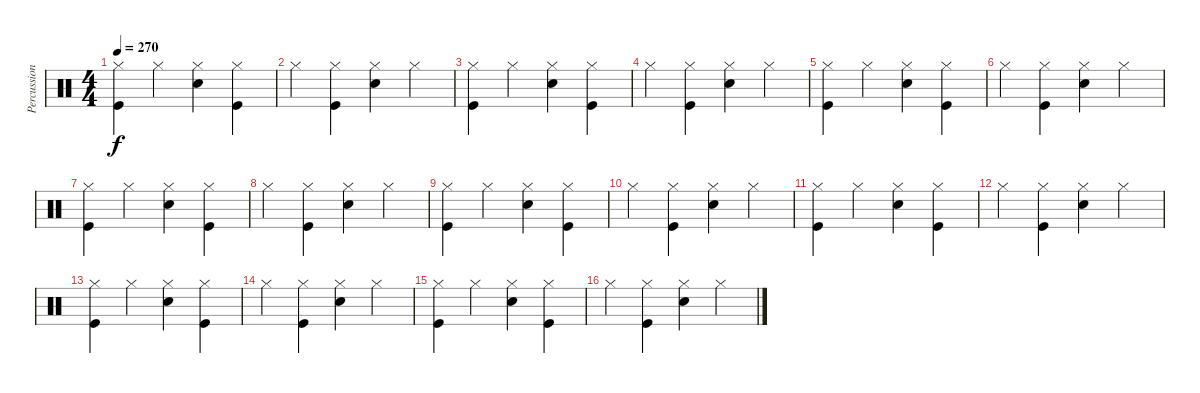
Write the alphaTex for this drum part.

\track ("Percussions" "Percussion") {instrument percussion}
\staff {score}
\articulation defaults
\ts (4 4)
\tempo 270
\clef neutral
\ks c
("Hi-Hat (closed)" "Kick (hit)").4{dy f} "Hi-Hat (closed)".4 ("Hi-Hat (closed)" "Snare (hit) 2").4 ("Hi-Hat (closed)" "Kick (hit)").4 |
"Hi-Hat (closed)".4 ("Hi-Hat (closed)" "Kick (hit)").4 ("Hi-Hat (closed)" "Snare (hit) 2").4 "Hi-Hat (closed)".4 |
("Hi-Hat (closed)" "Kick (hit)").4 "Hi-Hat (closed)".4 ("Hi-Hat (closed)" "Snare (hit) 2").4 ("Hi-Hat (closed)" "Kick (hit)").4 |
"Hi-Hat (closed)".4 ("Hi-Hat (closed)" "Kick (hit)").4 ("Hi-Hat (closed)" "Snare (hit) 2").4 "Hi-Hat (closed)".4 |
("Hi-Hat (closed)" "Kick (hit)").4 "Hi-Hat (closed)".4 ("Hi-Hat (closed)" "Snare (hit) 2").4 ("Hi-Hat (closed)" "Kick (hit)").4 |
"Hi-Hat (closed)".4 ("Hi-Hat (closed)" "Kick (hit)").4 ("Hi-Hat (closed)" "Snare (hit) 2").4 "Hi-Hat (closed)".4 |
("Hi-Hat (closed)" "Kick (hit)").4 "Hi-Hat (closed)".4 ("Hi-Hat (closed)" "Snare (hit) 2").4 ("Hi-Hat (closed)" "Kick (hit)").4 |
"Hi-Hat (closed)".4 ("Hi-Hat (closed)" "Kick (hit)").4 ("Hi-Hat (closed)" "Snare (hit) 2").4 "Hi-Hat (closed)".4 |
("Hi-Hat (closed)" "Kick (hit)").4 "Hi-Hat (closed)".4 ("Hi-Hat (closed)" "Snare (hit) 2").4 ("Hi-Hat (closed)" "Kick (hit)").4 |
"Hi-Hat (closed)".4 ("Hi-Hat (closed)" "Kick (hit)").4 ("Hi-Hat (closed)" "Snare (hit) 2").4 "Hi-Hat (closed)".4 |
("Hi-Hat (closed)" "Kick (hit)").4 "Hi-Hat (closed)".4 ("Hi-Hat (closed)" "Snare (hit) 2").4 ("Hi-Hat (closed)" "Kick (hit)").4 |
"Hi-Hat (closed)".4 ("Hi-Hat (closed)" "Kick (hit)").4 ("Hi-Hat (closed)" "Snare (hit) 2").4 "Hi-Hat (closed)".4 |
("Hi-Hat (closed)" "Kick (hit)").4 "Hi-Hat (closed)".4 ("Hi-Hat (closed)" "Snare (hit) 2").4 ("Hi-Hat (closed)" "Kick (hit)").4 |
"Hi-Hat (closed)".4 ("Hi-Hat (closed)" "Kick (hit)").4 ("Hi-Hat (closed)" "Snare (hit) 2").4 "Hi-Hat (closed)".4 |
("Hi-Hat (closed)" "Kick (hit)").4 "Hi-Hat (closed)".4 ("Hi-Hat (closed)" "Snare (hit) 2").4 ("Hi-Hat (closed)" "Kick (hit)").4 |
"Hi-Hat (closed)".4 ("Hi-Hat (closed)" "Kick (hit)").4 ("Hi-Hat (closed)" "Snare (hit) 2").4 "Hi-Hat (closed)".4
